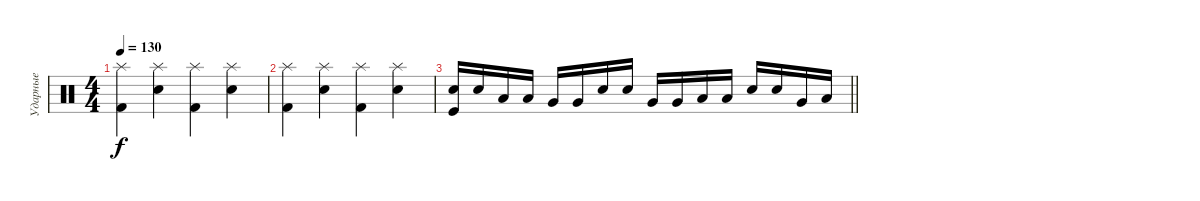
\track ("Ударные" "Ударные") {instrument percussion}
\staff {score}
\articulation defaults
\ts (4 4)
\tempo 130
\clef neutral
\ks c
("Kick (hit) 2" "Splash (hit)").4{dy f} ("Electric Snare (hit)" "Splash (hit)").4 ("Kick (hit) 2" "Splash (hit)").4 ("Electric Snare (hit)" "Splash (hit)").4 |
("Kick (hit) 2" "Splash (hit)").4 ("Electric Snare (hit)" "Splash (hit)").4 ("Kick (hit) 2" "Splash (hit)").4 ("Electric Snare (hit)" "Splash (hit)").4 |
\barLineRight lightlight
("Electric Snare (hit)" "Kick (hit)").16 "Electric Snare (hit)".16 "Low Tom (hit)".16 "Low Tom (hit)".16 "Very Low Tom (hit)".16 "Very Low Tom (hit)".16 "Electric Snare (hit)".16 "Electric Snare (hit)".16 "Very Low Tom (hit)".16 "Very Low Tom (hit)".16 "Low Floor Tom (hit)".16 "Low Floor Tom (hit)".16 "Electric Snare (hit)".16 "Electric Snare (hit)".16 "Very Low Tom (hit)".16 "Low Floor Tom (hit)".16
